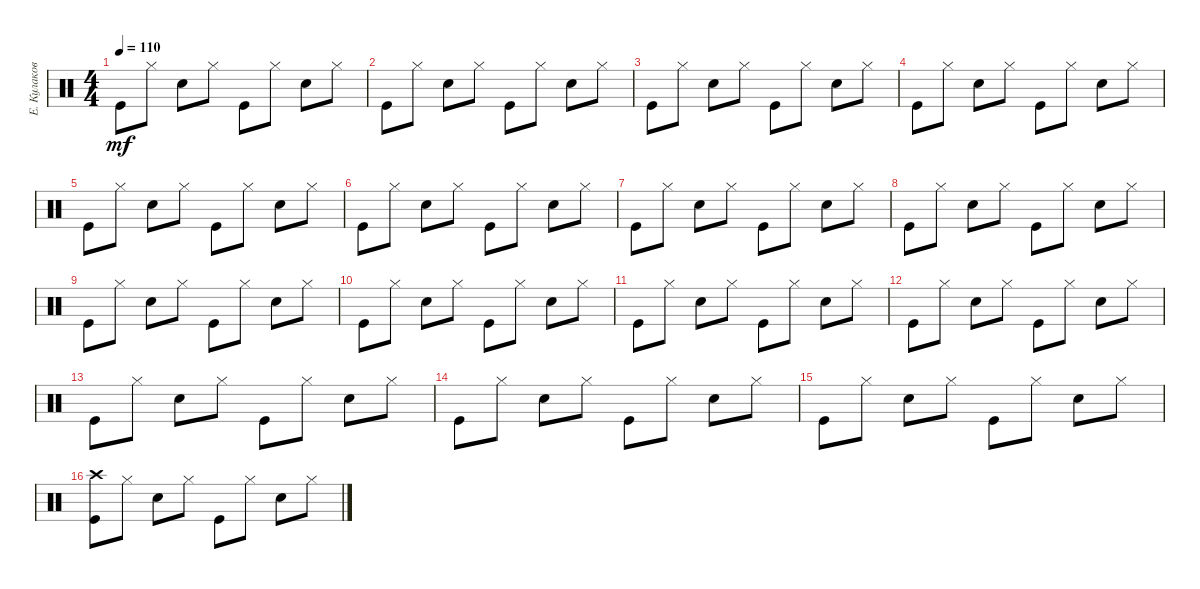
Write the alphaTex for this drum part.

\track ("Е. Кулаков" "Е. Кулаков") {instrument percussion}
\staff {score}
\articulation defaults
\ts (4 4)
\tempo 110
\clef neutral
\ks c "Kick (hit)".8{dy mf} "Hi-Hat (closed)".8 "Snare (hit) 2".8 "Hi-Hat (closed)".8 "Kick (hit)".8 "Hi-Hat (closed)".8 "Snare (hit) 2".8 "Hi-Hat (closed)".8
|
"Kick (hit)".8 "Hi-Hat (closed)".8 "Snare (hit) 2".8 "Hi-Hat (closed)".8 "Kick (hit)".8 "Hi-Hat (closed)".8 "Snare (hit) 2".8 "Hi-Hat (closed)".8 |
"Kick (hit)".8 "Hi-Hat (closed)".8 "Snare (hit) 2".8 "Hi-Hat (closed)".8 "Kick (hit)".8 "Hi-Hat (closed)".8 "Snare (hit) 2".8 "Hi-Hat (closed)".8 |
"Kick (hit)".8 "Hi-Hat (closed)".8 "Snare (hit) 2".8 "Hi-Hat (closed)".8 "Kick (hit)".8 "Hi-Hat (closed)".8 "Snare (hit) 2".8 "Hi-Hat (closed)".8 |
"Kick (hit)".8 "Hi-Hat (closed)".8 "Snare (hit) 2".8 "Hi-Hat (closed)".8 "Kick (hit)".8 "Hi-Hat (closed)".8 "Snare (hit) 2".8 "Hi-Hat (closed)".8 |
"Kick (hit)".8 "Hi-Hat (closed)".8 "Snare (hit) 2".8 "Hi-Hat (closed)".8 "Kick (hit)".8 "Hi-Hat (closed)".8 "Snare (hit) 2".8 "Hi-Hat (closed)".8 |
"Kick (hit)".8 "Hi-Hat (closed)".8 "Snare (hit) 2".8 "Hi-Hat (closed)".8 "Kick (hit)".8 "Hi-Hat (closed)".8 "Snare (hit) 2".8 "Hi-Hat (closed)".8 |
"Kick (hit)".8 "Hi-Hat (closed)".8 "Snare (hit) 2".8 "Hi-Hat (closed)".8 "Kick (hit)".8 "Hi-Hat (closed)".8 "Snare (hit) 2".8 "Hi-Hat (closed)".8 |
"Kick (hit)".8 "Hi-Hat (closed)".8 "Snare (hit) 2".8 "Hi-Hat (closed)".8 "Kick (hit)".8 "Hi-Hat (closed)".8 "Snare (hit) 2".8 "Hi-Hat (closed)".8 |
"Kick (hit)".8 "Hi-Hat (closed)".8 "Snare (hit) 2".8 "Hi-Hat (closed)".8 "Kick (hit)".8 "Hi-Hat (closed)".8 "Snare (hit) 2".8 "Hi-Hat (closed)".8 |
"Kick (hit)".8 "Hi-Hat (closed)".8 "Snare (hit) 2".8 "Hi-Hat (closed)".8 "Kick (hit)".8 "Hi-Hat (closed)".8 "Snare (hit) 2".8 "Hi-Hat (closed)".8 |
"Kick (hit)".8 "Hi-Hat (closed)".8 "Snare (hit) 2".8 "Hi-Hat (closed)".8 "Kick (hit)".8 "Hi-Hat (closed)".8 "Snare (hit) 2".8 "Hi-Hat (closed)".8 |
"Kick (hit)".8 "Hi-Hat (closed)".8 "Snare (hit) 2".8 "Hi-Hat (closed)".8 "Kick (hit)".8 "Hi-Hat (closed)".8 "Snare (hit) 2".8 "Hi-Hat (closed)".8 |
"Kick (hit)".8 "Hi-Hat (closed)".8 "Snare (hit) 2".8 "Hi-Hat (closed)".8 "Kick (hit)".8 "Hi-Hat (closed)".8 "Snare (hit) 2".8 "Hi-Hat (closed)".8 |
"Kick (hit)".8 "Hi-Hat (closed)".8 "Snare (hit) 2".8 "Hi-Hat (closed)".8 "Kick (hit)".8 "Hi-Hat (closed)".8 "Snare (hit) 2".8 "Hi-Hat (closed)".8 |
("Kick (hit)" "Crash high (hit)").8 "Hi-Hat (closed)".8 "Snare (hit) 2".8 "Hi-Hat (closed)".8 "Kick (hit)".8 "Hi-Hat (closed)".8 "Snare (hit) 2".8 "Hi-Hat (closed)".8
